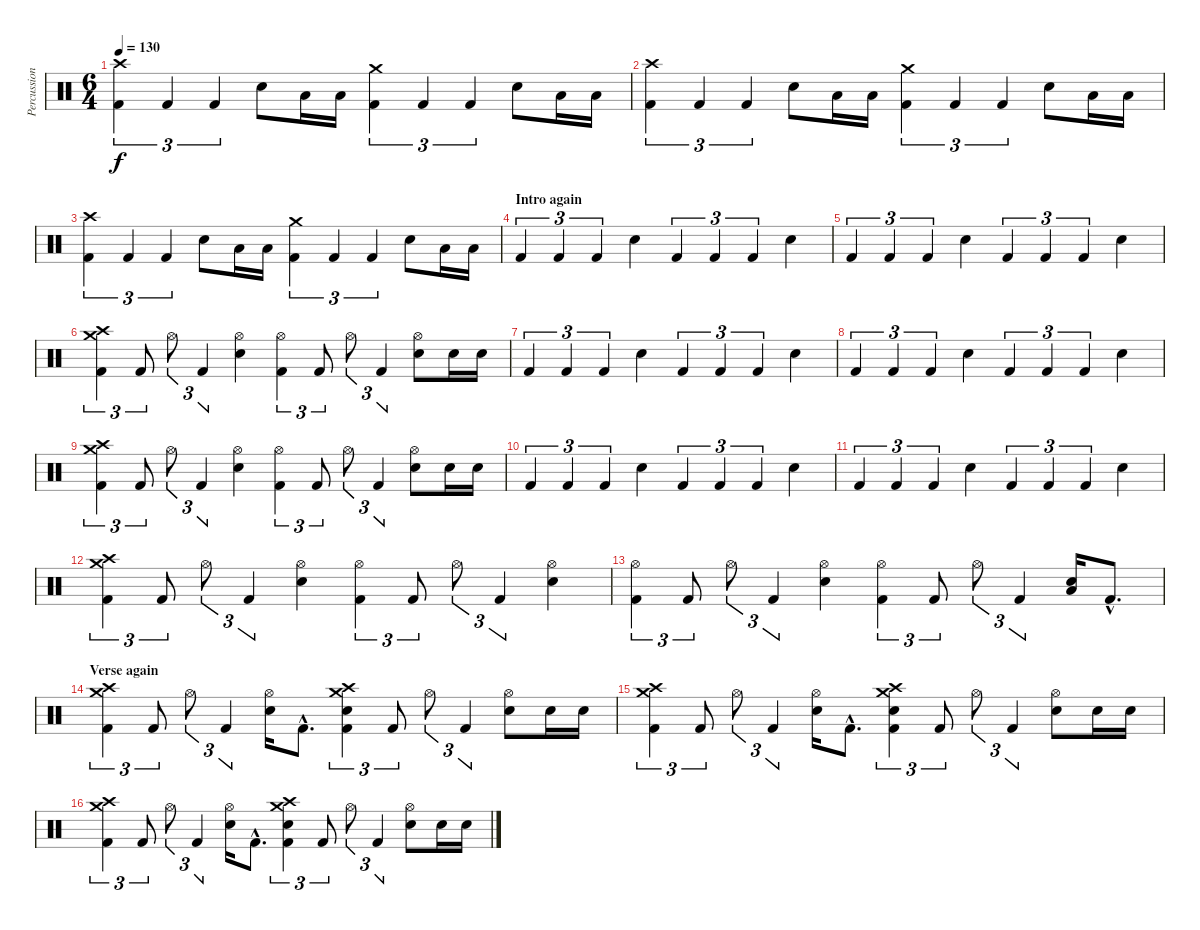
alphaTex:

\track ("Percussion" "Percussion") {instrument percussion}
\staff {score}
\articulation defaults
\ts (6 4)
\tempo 130
\clef neutral
\ks c
("Crash high (hit)" "Kick (hit) 2").4{tu (3 2) dy f} "Kick (hit) 2".4{tu (3 2)} "Kick (hit) 2".4{tu (3 2)} "Electric Snare (hit)".8 "Low Floor Tom (hit)".16 "Low Floor Tom (hit)".16 ("Crash medium (hit)" "Kick (hit) 2").4{tu (3 2)} "Kick (hit) 2".4{tu (3 2)} "Kick (hit) 2".4{tu (3 2)} "Electric Snare (hit)".8 "Low Tom (hit)".16 "Low Tom (hit)".16 |
("Crash high (hit)" "Kick (hit) 2").4{tu (3 2)} "Kick (hit) 2".4{tu (3 2)} "Kick (hit) 2".4{tu (3 2)} "Electric Snare (hit)".8 "Low Floor Tom (hit)".16 "Low Floor Tom (hit)".16 ("Crash medium (hit)" "Kick (hit) 2").4{tu (3 2)} "Kick (hit) 2".4{tu (3 2)} "Kick (hit) 2".4{tu (3 2)} "Electric Snare (hit)".8 "Low Tom (hit)".16 "Low Tom (hit)".16 |
("Crash high (hit)" "Kick (hit) 2").4{tu (3 2)} "Kick (hit) 2".4{tu (3 2)} "Kick (hit) 2".4{tu (3 2)} "Electric Snare (hit)".8 "Low Floor Tom (hit)".16 "Low Floor Tom (hit)".16 ("Crash medium (hit)" "Kick (hit) 2").4{tu (3 2)} "Kick (hit) 2".4{tu (3 2)} "Kick (hit) 2".4{tu (3 2)} "Electric Snare (hit)".8 "Low Tom (hit)".16 "Low Tom (hit)".16 |
\section ("" "Intro again")
"Kick (hit) 2".4{tu (3 2)} "Kick (hit) 2".4{tu (3 2)} "Kick (hit) 2".4{tu (3 2)} "Electric Snare (hit)".4 "Kick (hit) 2".4{tu (3 2)} "Kick (hit) 2".4{tu (3 2)} "Kick (hit) 2".4{tu (3 2)} "Electric Snare (hit)".4 |
"Kick (hit) 2".4{tu (3 2)} "Kick (hit) 2".4{tu (3 2)} "Kick (hit) 2".4{tu (3 2)} "Electric Snare (hit)".4 "Kick (hit) 2".4{tu (3 2)} "Kick (hit) 2".4{tu (3 2)} "Kick (hit) 2".4{tu (3 2)} "Electric Snare (hit)".4 |
("Crash medium (hit)" "Crash high (hit)" "Kick (hit) 2").4{tu (3 2)} "Kick (hit) 2".8{tu (3 2)} "Hi-Hat (open)".8{tu (3 2)} "Kick (hit) 2".4{tu (3 2)} ("Hi-Hat (open)" "Electric Snare (hit)").4 ("Hi-Hat (open)" "Kick (hit) 2").4{tu (3 2)} "Kick (hit) 2".8{tu (3 2)} "Hi-Hat (open)".8{tu (3 2)} "Kick (hit) 2".4{tu (3 2)} ("Hi-Hat (open)" "Electric Snare (hit)").8 "Electric Snare (hit)".16 "Electric Snare (hit)".16 |
"Kick (hit) 2".4{tu (3 2)} "Kick (hit) 2".4{tu (3 2)} "Kick (hit) 2".4{tu (3 2)} "Electric Snare (hit)".4 "Kick (hit) 2".4{tu (3 2)} "Kick (hit) 2".4{tu (3 2)} "Kick (hit) 2".4{tu (3 2)} "Electric Snare (hit)".4 |
"Kick (hit) 2".4{tu (3 2)} "Kick (hit) 2".4{tu (3 2)} "Kick (hit) 2".4{tu (3 2)} "Electric Snare (hit)".4 "Kick (hit) 2".4{tu (3 2)} "Kick (hit) 2".4{tu (3 2)} "Kick (hit) 2".4{tu (3 2)} "Electric Snare (hit)".4 |
("Crash medium (hit)" "Crash high (hit)" "Kick (hit) 2").4{tu (3 2)} "Kick (hit) 2".8{tu (3 2)} "Hi-Hat (open)".8{tu (3 2)} "Kick (hit) 2".4{tu (3 2)} ("Hi-Hat (open)" "Electric Snare (hit)").4 ("Hi-Hat (open)" "Kick (hit) 2").4{tu (3 2)} "Kick (hit) 2".8{tu (3 2)} "Hi-Hat (open)".8{tu (3 2)} "Kick (hit) 2".4{tu (3 2)} ("Hi-Hat (open)" "Electric Snare (hit)").8 "Electric Snare (hit)".16 "Electric Snare (hit)".16 |
"Kick (hit) 2".4{tu (3 2)} "Kick (hit) 2".4{tu (3 2)} "Kick (hit) 2".4{tu (3 2)} "Electric Snare (hit)".4 "Kick (hit) 2".4{tu (3 2)} "Kick (hit) 2".4{tu (3 2)} "Kick (hit) 2".4{tu (3 2)} "Electric Snare (hit)".4 |
"Kick (hit) 2".4{tu (3 2)} "Kick (hit) 2".4{tu (3 2)} "Kick (hit) 2".4{tu (3 2)} "Electric Snare (hit)".4 "Kick (hit) 2".4{tu (3 2)} "Kick (hit) 2".4{tu (3 2)} "Kick (hit) 2".4{tu (3 2)} "Electric Snare (hit)".4 |
("Crash medium (hit)" "Crash high (hit)" "Kick (hit) 2").4{tu (3 2)} "Kick (hit) 2".8{tu (3 2)} "Hi-Hat (open)".8{tu (3 2)} "Kick (hit) 2".4{tu (3 2)} ("Hi-Hat (open)" "Electric Snare (hit)").4 ("Hi-Hat (open)" "Kick (hit) 2").4{tu (3 2)} "Kick (hit) 2".8{tu (3 2)} "Hi-Hat (open)".8{tu (3 2)} "Kick (hit) 2".4{tu (3 2)} ("Hi-Hat (open)" "Electric Snare (hit)").4 |
("Hi-Hat (open)" "Kick (hit) 2").4{tu (3 2)} "Kick (hit) 2".8{tu (3 2)} "Hi-Hat (open)".8{tu (3 2)} "Kick (hit) 2".4{tu (3 2)} ("Hi-Hat (open)" "Electric Snare (hit)").4 ("Hi-Hat (open)" "Kick (hit) 2").4{tu (3 2)} "Kick (hit) 2".8{tu (3 2)} "Hi-Hat (open)".8{tu (3 2)} "Kick (hit) 2".4{tu (3 2)} ("Electric Snare (hit)" "Low Floor Tom (hit)").16 "Kick (hit) 2"{hac}.8{d} |
\section ("" "Verse again")
("Crash medium (hit)" "Crash high (hit)" "Kick (hit) 2").4{tu (3 2)} "Kick (hit) 2".8{tu (3 2)} "Hi-Hat (open)".8{tu (3 2)} "Kick (hit) 2".4{tu (3 2)} ("Hi-Hat (open)" "Electric Snare (hit)").16 "Kick (hit) 2"{hac}.8{d} ("Crash medium (hit)" "Crash high (hit)" "Electric Snare (hit)" "Kick (hit) 2").4{tu (3 2)} "Kick (hit) 2".8{tu (3 2)} "Hi-Hat (open)".8{tu (3 2)} "Kick (hit) 2".4{tu (3 2)} ("Hi-Hat (open)" "Electric Snare (hit)").8 "Electric Snare (hit)".16 "Electric Snare (hit)".16 |
("Crash medium (hit)" "Crash high (hit)" "Kick (hit) 2").4{tu (3 2)} "Kick (hit) 2".8{tu (3 2)} "Hi-Hat (open)".8{tu (3 2)} "Kick (hit) 2".4{tu (3 2)} ("Hi-Hat (open)" "Electric Snare (hit)").16 "Kick (hit) 2"{hac}.8{d} ("Crash medium (hit)" "Crash high (hit)" "Electric Snare (hit)" "Kick (hit) 2").4{tu (3 2)} "Kick (hit) 2".8{tu (3 2)} "Hi-Hat (open)".8{tu (3 2)} "Kick (hit) 2".4{tu (3 2)} ("Hi-Hat (open)" "Electric Snare (hit)").8 "Electric Snare (hit)".16 "Electric Snare (hit)".16 |
("Crash medium (hit)" "Crash high (hit)" "Kick (hit) 2").4{tu (3 2)} "Kick (hit) 2".8{tu (3 2)} "Hi-Hat (open)".8{tu (3 2)} "Kick (hit) 2".4{tu (3 2)} ("Hi-Hat (open)" "Electric Snare (hit)").16 "Kick (hit) 2"{hac}.8{d} ("Crash medium (hit)" "Crash high (hit)" "Electric Snare (hit)" "Kick (hit) 2").4{tu (3 2)} "Kick (hit) 2".8{tu (3 2)} "Hi-Hat (open)".8{tu (3 2)} "Kick (hit) 2".4{tu (3 2)} ("Hi-Hat (open)" "Electric Snare (hit)").8 "Electric Snare (hit)".16 "Electric Snare (hit)".16
